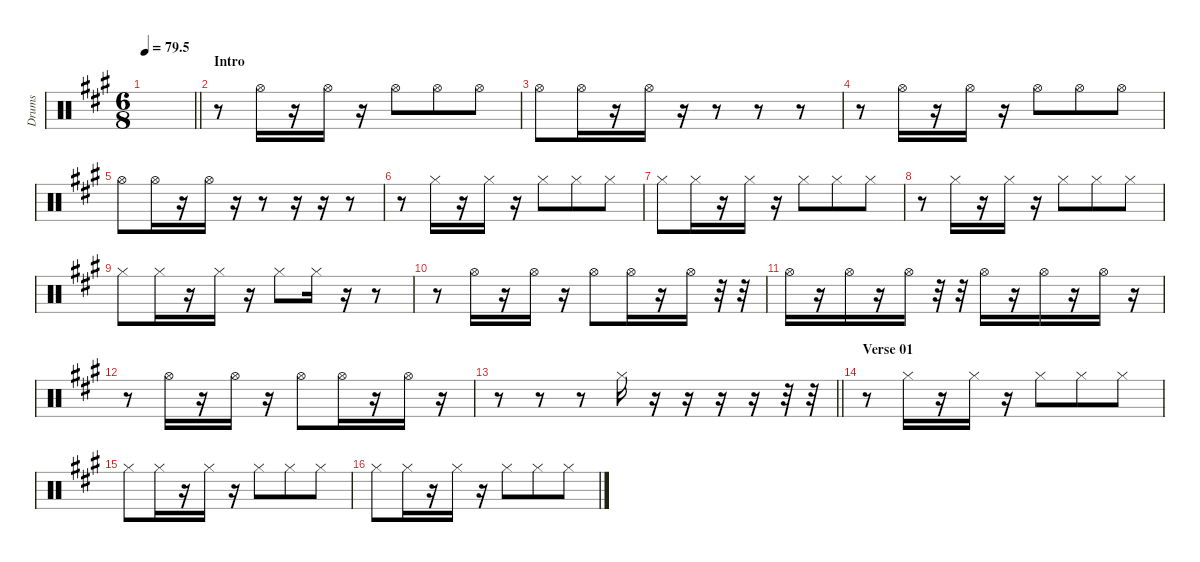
\defaultSystemsLayout 4
\hideDynamics
\bracketExtendMode nobrackets
\otherSystemsTrackNameOrientation horizontal
\track ("Hihat" "Drums") {instrument percussion}
\staff {score}
\articulation defaults
\ts (6 8)
\tempo
79.5
\accidentals auto
\clef neutral
\ottava regular
\simile none
\scale
0.474178
\barLineRight lightlight
\ks a
|
\section ("" "Intro")
\scale
0.262911 r.8 "Hi-Hat (open)"{acc forcenatural}.16 r.16 "Hi-Hat (open)"{acc forcenatural}.16 r.16 "Hi-Hat (open)"{acc forcenatural}.8 "Hi-Hat (open)"{acc forcenatural}.8 "Hi-Hat (open)"{acc forcenatural}.8 |
\scale
0.262911 "Hi-Hat (open)"{acc forcenatural}.8 "Hi-Hat (open)"{acc forcenatural}.16 r.16 "Hi-Hat (open)"{acc forcenatural}.16 r.16 r.8 r.8 r.8 |
\scale
0.333333 r.8 "Hi-Hat (open)"{acc forcenatural}.16 r.16 "Hi-Hat (open)"{acc forcenatural}.16 r.16 "Hi-Hat (open)"{acc forcenatural}.8 "Hi-Hat (open)"{acc forcenatural}.8 "Hi-Hat (open)"{acc forcenatural}.8 |
\scale
0.333333 "Hi-Hat (open)"{acc forcenatural}.8 "Hi-Hat (open)"{acc forcenatural}.16 r.16 "Hi-Hat (open)"{acc forcenatural}.16 r.16 r.8 r.16 r.16 r.8 |
\scale
0.333333 r.8 "Hi-Hat (closed)"{acc forcenatural}.16 r.16 "Hi-Hat (closed)"{acc forcenatural}.16 r.16 "Hi-Hat (closed)"{acc forcenatural}.8 "Hi-Hat (closed)"{acc forcenatural}.8 "Hi-Hat (closed)"{acc forcenatural}.8 |
\scale
0.333333 "Hi-Hat (closed)"{acc forcenatural}.8 "Hi-Hat (closed)"{acc forcenatural}.16 r.16 "Hi-Hat (closed)"{acc forcenatural}.16 r.16 "Hi-Hat (closed)"{acc forcenatural}.8 "Hi-Hat (closed)"{acc forcenatural}.8 "Hi-Hat (closed)"{acc forcenatural}.8 |
\scale
0.333333 r.8 "Hi-Hat (closed)"{acc forcenatural}.16 r.16 "Hi-Hat (closed)"{acc forcenatural}.16 r.16 "Hi-Hat (closed)"{acc forcenatural}.8 "Hi-Hat (closed)"{acc forcenatural}.8 "Hi-Hat (closed)"{acc forcenatural}.8 |
\scale
0.333333 "Hi-Hat (closed)"{acc forcenatural}.8 "Hi-Hat (closed)"{acc forcenatural}.16 r.16 "Hi-Hat (closed)"{acc forcenatural}.16 r.16 "Hi-Hat (closed)"{acc forcenatural}.8 "Hi-Hat (closed)"{acc forcenatural}.16 r.16 r.8 |
\scale
0.333333 r.8 "Hi-Hat (open)"{acc forcenatural}.16 r.16 "Hi-Hat (open)"{acc forcenatural}.16 r.16 "Hi-Hat (open)"{acc forcenatural}.8 "Hi-Hat (open)"{acc forcenatural}.16 r.16 "Hi-Hat (open)"{acc forcenatural}.16 r.32 r.32 |
\scale
0.333333 "Hi-Hat (open)"{acc forcenatural}.16 r.16 "Hi-Hat (open)"{acc forcenatural}.16 r.16 "Hi-Hat (open)"{acc forcenatural}.16 r.32 r.32 "Hi-Hat (open)"{acc forcenatural}.16 r.16 "Hi-Hat (open)"{acc forcenatural}.16 r.16 "Hi-Hat (open)"{acc forcenatural}.16 r.16 |
\scale
0.333333 r.8 "Hi-Hat (open)"{acc forcenatural}.16 r.16 "Hi-Hat (open)"{acc forcenatural}.16 r.16 "Hi-Hat (open)"{acc forcenatural}.8 "Hi-Hat (open)"{acc forcenatural}.16 r.16 "Hi-Hat (open)"{acc forcenatural}.16 r.16 |
\scale
0.333333
\barLineRight lightlight
r.8 r.8 r.8 "Hi-Hat (closed)"{acc forcenatural}.16 r.16 r.16 r.16 r.16 r.32 r.32 |
\section ("" "Verse 01")
\scale
0.333333 r.8 "Hi-Hat (closed)"{acc forcenatural}.16 r.16 "Hi-Hat (closed)"{acc forcenatural}.16 r.16 "Hi-Hat (closed)"{acc forcenatural}.8 "Hi-Hat (closed)"{acc forcenatural}.8 "Hi-Hat (closed)"{acc forcenatural}.8 |
\scale
0.333333 "Hi-Hat (closed)"{acc forcenatural}.8 "Hi-Hat (closed)"{acc forcenatural}.16 r.16 "Hi-Hat (closed)"{acc forcenatural}.16 r.16 "Hi-Hat (closed)"{acc forcenatural}.8 "Hi-Hat (closed)"{acc forcenatural}.8 "Hi-Hat (closed)"{acc forcenatural}.8 |
\scale
0.333333 "Hi-Hat (closed)"{acc forcenatural}.8 "Hi-Hat (closed)"{acc forcenatural}.16 r.16 "Hi-Hat (closed)"{acc forcenatural}.16 r.16 "Hi-Hat (closed)"{acc forcenatural}.8 "Hi-Hat (closed)"{acc forcenatural}.8 "Hi-Hat (closed)"{acc forcenatural}.8
